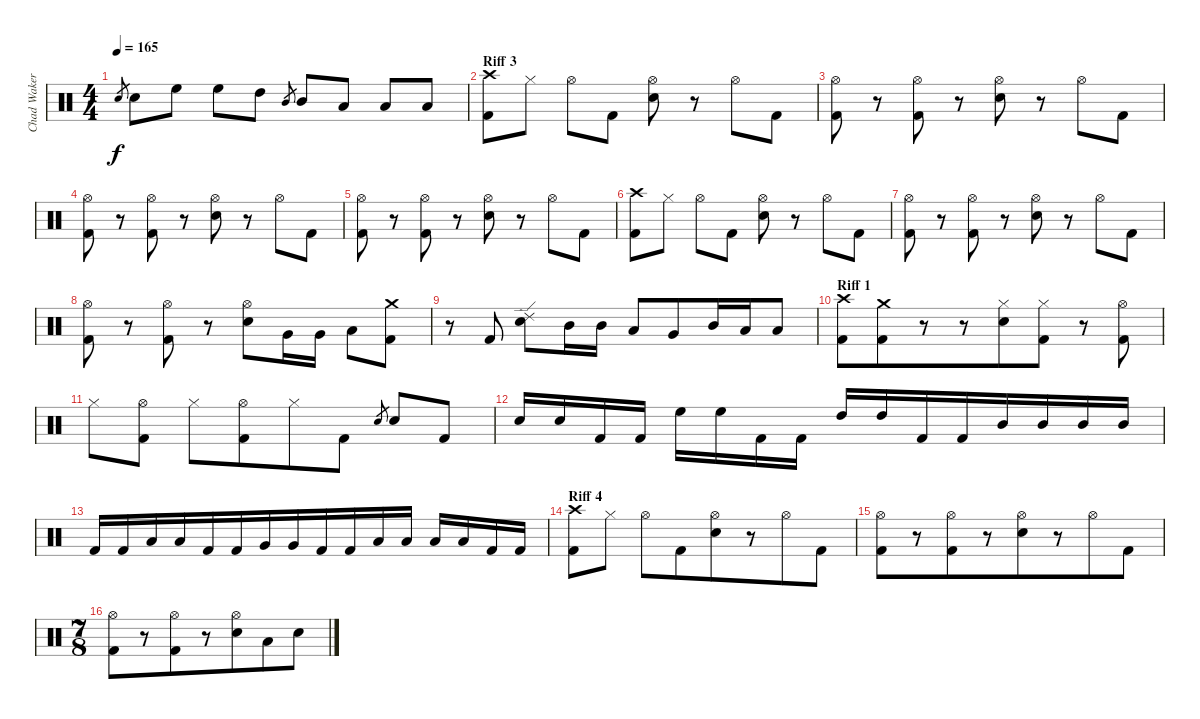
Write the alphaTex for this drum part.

\track ("Chad Wakerman - Percussion" "Chad Waker") {instrument percussion}
\staff {score}
\articulation defaults
\ts (4 4)
\tempo 165
\clef neutral
\ks c "Electric Snare (hit)".8{gr dy f} "Electric Snare (hit)".8 "High Floor Tom (hit)".8 "High Floor Tom (hit)".8 "High Tom (hit)".8 "Mid Tom (hit)".8{gr} "Mid Tom (hit)".8 "Low Tom (hit)".8 "Low Tom (hit)".8 "Low Floor Tom (hit)".8
|
\section ("" "Riff 3")
("Crash high (hit)" "Kick (hit) 2").8 "Hi-Hat (closed)".8 "Hi-Hat (open)".8 "Kick (hit) 2".8 ("Hi-Hat (open)" "Electric Snare (hit)").8 r.8 "Hi-Hat (open)".8 "Kick (hit) 2".8 |
("Hi-Hat (open)" "Kick (hit) 2").8 r.8 ("Hi-Hat (open)" "Kick (hit) 2").8 r.8 ("Hi-Hat (open)" "Electric Snare (hit)").8 r.8 "Hi-Hat (open)".8 "Kick (hit) 2".8 |
("Hi-Hat (open)" "Kick (hit) 2").8 r.8 ("Hi-Hat (open)" "Kick (hit) 2").8 r.8 ("Hi-Hat (open)" "Electric Snare (hit)").8 r.8 "Hi-Hat (open)".8 "Kick (hit) 2".8 |
("Hi-Hat (open)" "Kick (hit) 2").8 r.8 ("Hi-Hat (open)" "Kick (hit) 2").8 r.8 ("Hi-Hat (open)" "Electric Snare (hit)").8 r.8 "Hi-Hat (open)".8 "Kick (hit) 2".8 |
("Crash high (hit)" "Kick (hit) 2").8 "Hi-Hat (closed)".8 "Hi-Hat (open)".8 "Kick (hit) 2".8 ("Hi-Hat (open)" "Electric Snare (hit)").8 r.8 "Hi-Hat (open)".8 "Kick (hit) 2".8 |
("Hi-Hat (open)" "Kick (hit) 2").8 r.8 ("Hi-Hat (open)" "Kick (hit) 2").8 r.8 ("Hi-Hat (open)" "Electric Snare (hit)").8 r.8 "Hi-Hat (open)".8 "Kick (hit) 2".8 |
("Hi-Hat (open)" "Kick (hit) 2").8 r.8 ("Hi-Hat (open)" "Kick (hit) 2").8 r.8 ("Hi-Hat (open)" "Electric Snare (hit)").8 "Very Low Tom (hit)".16 "Very Low Tom (hit)".16 "Low Floor Tom (hit)".8 ("Crash medium (hit)" "Kick (hit) 2").8 |
r.8 "Kick (hit) 2".8 ("Ride (edge) 2" "Electric Snare (hit)").8{beam merge} "Mid Tom (hit)".16 "Mid Tom (hit)".16 "Low Tom (hit)".8 "Very Low Tom (hit)".8{beam merge} "Mid Tom (hit)".16 "Low Tom (hit)".16{beam merge} "Low Floor Tom (hit)".8 |
\section ("" "Riff 1")
("Crash high (hit)" "Kick (hit) 2").8 ("Crash medium (hit)" "Kick (hit) 2").8{beam merge} r.8 r.8{beam merge} ("Hi-Hat (closed)" "Electric Snare (hit)").8 ("Hi-Hat (closed)" "Kick (hit) 2").8 r.8 ("Hi-Hat (open)" "Kick (hit) 2").8 |
"Hi-Hat (closed)".8{beam merge} ("Hi-Hat (open)" "Kick (hit) 2").8 "Hi-Hat (closed)".8 ("Hi-Hat (open)" "Kick (hit) 2").8{beam merge} "Hi-Hat (closed)".8 "Kick (hit) 2".8 "Electric Snare (hit)".8{gr} "Electric Snare (hit)".8 "Kick (hit) 2".8 |
"Electric Snare (hit)".16 "Electric Snare (hit)".16{beam merge} "Kick (hit) 2".16{beam merge} "Kick (hit) 2".16 "High Floor Tom (hit)".16{beam merge} "High Floor Tom (hit)".16{beam merge} "Kick (hit) 2".16{beam merge} "Kick (hit) 2".16 "High Tom (hit)".16 "High Tom (hit)".16 "Kick (hit) 2".16{beam merge} "Kick (hit) 2".16{beam merge} "Mid Tom (hit)".16{beam merge} "Mid Tom (hit)".16{beam merge} "Mid Tom (hit)".16{beam merge} "Mid Tom (hit)".16 |
"Kick (hit) 2".16{beam merge} "Kick (hit) 2".16{beam merge} "Low Tom (hit)".16 "Low Tom (hit)".16{beam merge} "Kick (hit) 2".16 "Kick (hit) 2".16{beam merge} "Very Low Tom (hit)".16{beam merge} "Very Low Tom (hit)".16{beam merge} "Kick (hit) 2".16 "Kick (hit) 2".16 "Low Floor Tom (hit)".16 "Low Floor Tom (hit)".16 "Low Floor Tom (hit)".16{beam merge} "Low Floor Tom (hit)".16{beam merge} "Kick (hit) 2".16{beam merge} "Kick (hit) 2".16 |
\section ("" "Riff 4")
("Crash high (hit)" "Kick (hit) 2").8 "Hi-Hat (closed)".8 "Hi-Hat (open)".8{beam merge} "Kick (hit) 2".8{beam merge} ("Hi-Hat (open)" "Electric Snare (hit)").8{beam merge} r.8{beam merge} "Hi-Hat (open)".8 "Kick (hit) 2".8 |
("Hi-Hat (open)" "Kick (hit) 2").8{beam merge} r.8{beam merge} ("Hi-Hat (open)" "Kick (hit) 2").8{beam merge} r.8{beam merge} ("Hi-Hat (open)" "Electric Snare (hit)").8{beam merge} r.8{beam merge} "Hi-Hat (open)".8{beam merge} "Kick (hit) 2".8 |
\ts (7 8)
("Hi-Hat (open)" "Kick (hit) 2").8{beam merge} r.8 ("Hi-Hat (open)" "Kick (hit) 2").8{beam merge} r.8{beam merge} ("Hi-Hat (open)" "Electric Snare (hit)").8{beam merge} "Low Tom (hit)".8{beam merge} "Electric Snare (hit)".8
